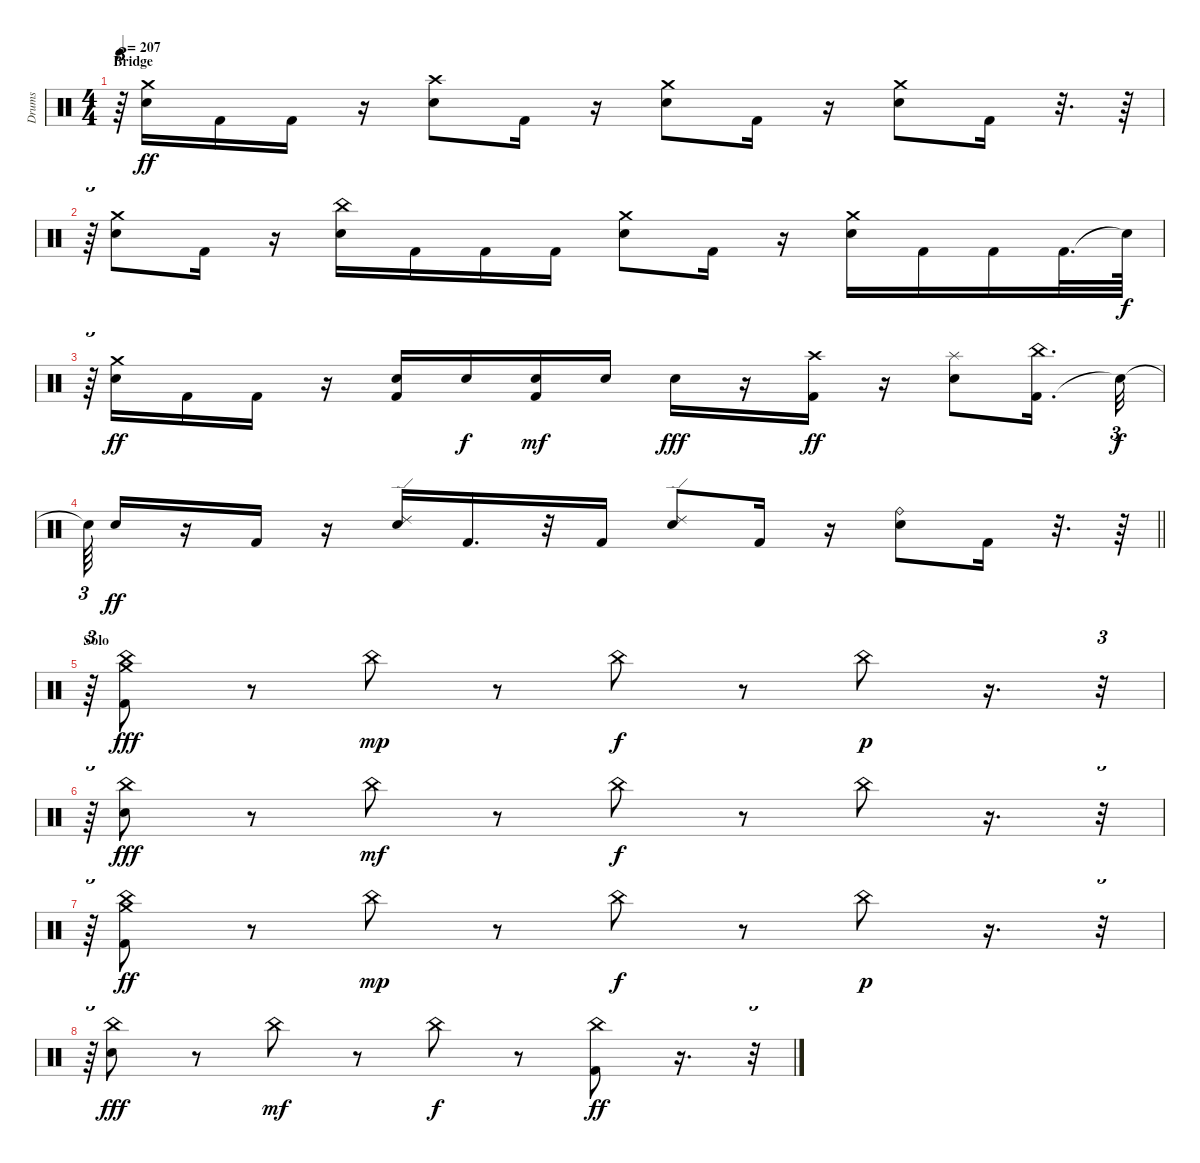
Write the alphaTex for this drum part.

\track ("Drums" "Drums") {instrument percussion}
\staff {score}
\articulation defaults
\ts (4 4)
\section ("" "Bridge")
\tempo 207
\clef neutral
\ks c
r.64{tu (3 2) dy fff} ("Snare (hit) 2" "Crash medium (hit)").16{dy ff} "Kick (hit) 2".16 "Kick (hit) 2".16 r.16 ("Snare (hit) 2" "Crash high (hit)").8 "Kick (hit) 2".16 r.16 ("Snare (hit) 2" "Crash medium (hit)").8 "Kick (hit) 2".16 r.16 ("Snare (hit) 2" "Crash medium (hit)").8 "Kick (hit) 2".16 r.32{d} r.64 |
r.64{tu (3 2)} ("Snare (hit) 2" "Crash medium (hit)").8 "Kick (hit) 2".16 r.16 ("Snare (hit) 2" "China (hit)").16 "Kick (hit) 2".16 "Kick (hit) 2".16 "Kick (hit) 2".16 ("Snare (hit) 2" "Crash medium (hit)").8 "Kick (hit) 2".16 r.16 ("Snare (hit) 2" "Crash medium (hit)").16 "Kick (hit) 2".16 "Kick (hit) 2".16 "Kick (hit) 2".32{d} "Snare (hit)"{t}.64{dy f} |
r.64{tu (3 2)} ("Snare (hit) 2" "Crash medium (hit)").16{dy ff} "Kick (hit) 2".16 "Kick (hit) 2".16 r.16 ("Kick (hit) 2" "Snare (hit) 2").16 "Snare (hit) 2".16{dy f} ("Kick (hit) 2" "Snare (hit) 2").16{dy mf} "Snare (hit) 2".16 "Snare (hit) 2".16{dy fff} r.16 ("Kick (hit) 2" "Crash high (hit)").16{dy ff} r.16 ("Snare (hit) 2" "Splash (hit)").8 ("Kick (hit) 2" "China (hit)").16{d} "Snare (hit)"{t}.32{tu (3 2) dy f} |
\barLineRight lightlight "Snare (hit)"{t}.64{tu (3 2)} "Snare (hit) 2".16{dy ff}
r.16 "Kick (hit) 2".16 r.16 ("Snare (hit) 2" "Ride (edge) 2").16 "Kick (hit) 2".16{d} r.32 "Kick (hit) 2".16 ("Snare (hit) 2" "Ride (edge) 2").8 "Kick (hit) 2".16 r.16 ("Snare (hit) 2" "Ride (bell)").8 "Kick (hit) 2".16 r.32{d} r.64 |
\section ("" "Solo")
r.64{tu (3 2)} ("Kick (hit) 2" "China (hit)" "Crash medium (hit)").8{dy fff} r.8 "China (hit)".8{dy mp} r.8 "China (hit)".8{dy f} r.8 "China (hit)".8{dy p} r.16{d} r.32{tu (3 2)} |
r.64{tu (3 2)} ("Snare (hit) 2" "China (hit)").8{dy fff} r.8 "China (hit)".8{dy mf} r.8 "China (hit)".8{dy f} r.8 "China (hit)".8 r.16{d} r.32{tu (3 2)} |
r.64{tu (3 2)} ("Kick (hit) 2" "Crash medium (hit)" "China (hit)").8{dy ff} r.8 "China (hit)".8{dy mp} r.8 "China (hit)".8{dy f} r.8 "China (hit)".8{dy p} r.16{d} r.32{tu (3 2)} |
r.64{tu (3 2)} ("Snare (hit) 2" "China (hit)").8{dy fff} r.8 "China (hit)".8{dy mf} r.8 "China (hit)".8{dy f} r.8 ("Kick (hit) 2" "China (hit)").8{dy ff} r.16{d} r.32{tu (3 2)}
